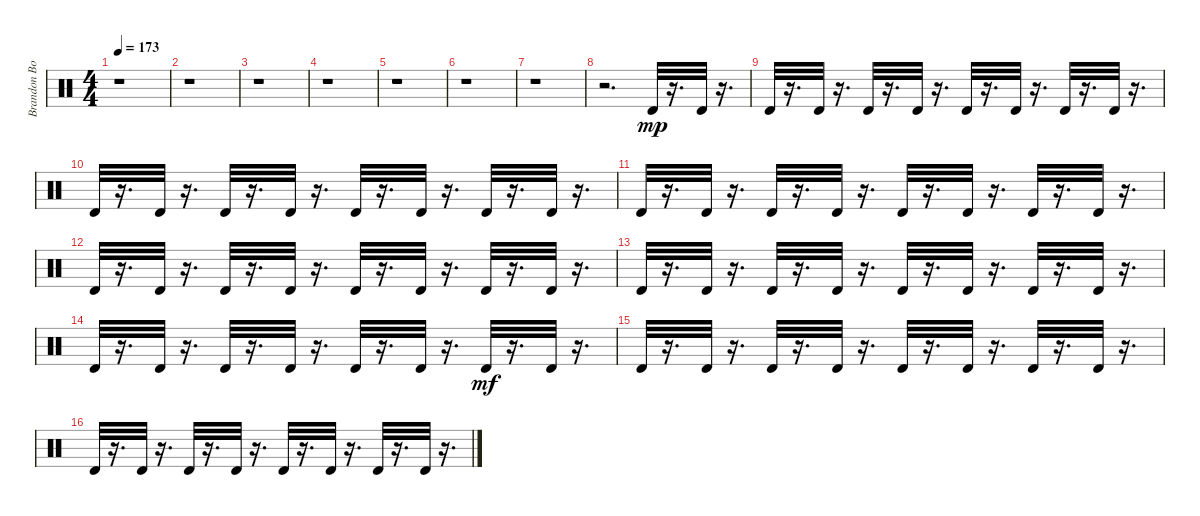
\track ("Brandon Boyd-Percussion" "Brandon Bo") {instrument percussion}
\staff {score}
\articulation defaults
\ts (4 4)
\tempo 173
\clef neutral
\ks c
r.1{dy mp} |
r.1 |
r.1 |
r.1 |
r.1 |
r.1 |
r.1 |
r.2{d} "Timbale high (hit)".32 r.16{d} "Timbale high (hit)".32 r.16{d} |
"Timbale high (hit)".32 r.16{d} "Timbale high (hit)".32 r.16{d} "Timbale high (hit)".32 r.16{d} "Timbale high (hit)".32 r.16{d} "Timbale high (hit)".32 r.16{d} "Timbale high (hit)".32 r.16{d} "Timbale high (hit)".32 r.16{d} "Timbale high (hit)".32 r.16{d} |
"Timbale high (hit)".32 r.16{d} "Timbale high (hit)".32 r.16{d} "Timbale high (hit)".32 r.16{d} "Timbale high (hit)".32 r.16{d} "Timbale high (hit)".32 r.16{d} "Timbale high (hit)".32 r.16{d} "Timbale high (hit)".32 r.16{d} "Timbale high (hit)".32 r.16{d} |
"Timbale high (hit)".32 r.16{d} "Timbale high (hit)".32 r.16{d} "Timbale high (hit)".32 r.16{d} "Timbale high (hit)".32 r.16{d} "Timbale high (hit)".32 r.16{d} "Timbale high (hit)".32 r.16{d} "Timbale high (hit)".32 r.16{d} "Timbale high (hit)".32 r.16{d} |
"Timbale high (hit)".32 r.16{d} "Timbale high (hit)".32 r.16{d} "Timbale high (hit)".32 r.16{d} "Timbale high (hit)".32 r.16{d} "Timbale high (hit)".32 r.16{d} "Timbale high (hit)".32 r.16{d} "Timbale high (hit)".32 r.16{d} "Timbale high (hit)".32 r.16{d} |
"Timbale high (hit)".32 r.16{d} "Timbale high (hit)".32 r.16{d} "Timbale high (hit)".32 r.16{d} "Timbale high (hit)".32 r.16{d} "Timbale high (hit)".32 r.16{d} "Timbale high (hit)".32 r.16{d} "Timbale high (hit)".32 r.16{d} "Timbale high (hit)".32 r.16{d} |
"Timbale high (hit)".32 r.16{d} "Timbale high (hit)".32 r.16{d} "Timbale high (hit)".32 r.16{d} "Timbale high (hit)".32 r.16{d} "Timbale high (hit)".32 r.16{d} "Timbale high (hit)".32 r.16{d} "Timbale high (hit)".32{dy mf} r.16{d} "Timbale high (hit)".32 r.16{d} |
"Timbale high (hit)".32 r.16{d} "Timbale high (hit)".32 r.16{d} "Timbale high (hit)".32 r.16{d} "Timbale high (hit)".32 r.16{d} "Timbale high (hit)".32 r.16{d} "Timbale high (hit)".32 r.16{d} "Timbale high (hit)".32 r.16{d} "Timbale high (hit)".32 r.16{d} |
"Timbale high (hit)".32 r.16{d} "Timbale high (hit)".32 r.16{d} "Timbale high (hit)".32 r.16{d} "Timbale high (hit)".32 r.16{d} "Timbale high (hit)".32 r.16{d} "Timbale high (hit)".32 r.16{d} "Timbale high (hit)".32 r.16{d} "Timbale high (hit)".32 r.16{d}
